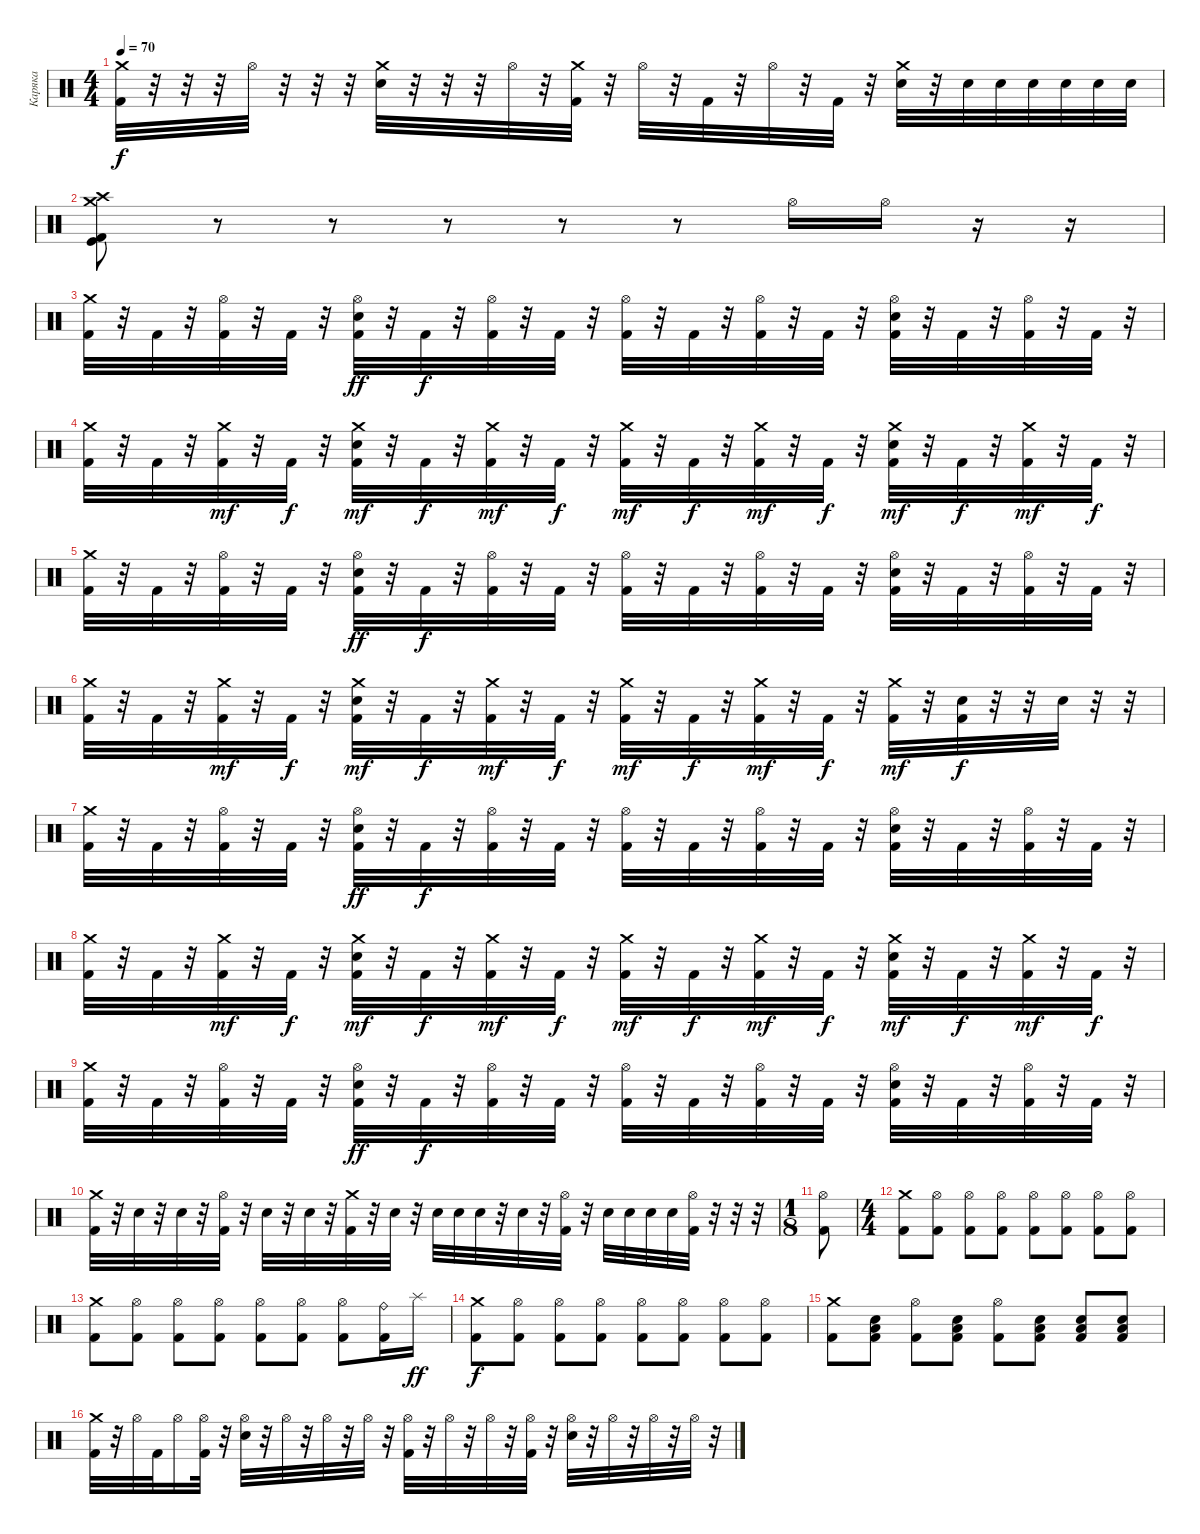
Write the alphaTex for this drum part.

\track ("Каряка" "Каряка") {instrument percussion}
\staff {score}
\articulation defaults
\ts (4 4)
\tempo 70
\clef neutral
\ks c
("Crash medium (hit)" "Kick (hit) 2").32{dy f} r.32 r.32 r.32 "Hi-Hat (open)".32 r.32 r.32 r.32 ("Crash medium (hit)" "Snare (hit) 2").32 r.32 r.32 r.32 "Hi-Hat (open)".32 r.32 ("Crash medium (hit)" "Kick (hit) 2").32 r.32 "Hi-Hat (open)".32 r.32 "Kick (hit) 2".32 r.32 "Hi-Hat (open)".32 r.32 "Kick (hit) 2".32 r.32 ("Crash medium (hit)" "Snare (hit) 2").32 r.32 "Snare (hit) 2".32 "Snare (hit) 2".32 "Snare (hit) 2".32 "Snare (hit) 2".32 "Snare (hit) 2".32 "Snare (hit) 2".32 |
("Crash medium (hit)" "Crash high (hit)" "Kick (hit)" "Kick (hit) 2").8 r.8 r.8 r.8 r.8 r.8 "Hi-Hat (open)".16 "Hi-Hat (open)".16 r.16 r.16 |
("Crash medium (hit)" "Kick (hit) 2").32 r.32 "Kick (hit) 2".32 r.32 ("Hi-Hat (open)" "Kick (hit) 2").32 r.32 "Kick (hit) 2".32 r.32 ("Hi-Hat (open)" "Snare (hit) 2" "Kick (hit) 2").32{dy ff} r.32 "Kick (hit) 2".32{dy f} r.32 ("Hi-Hat (open)" "Kick (hit) 2").32 r.32 "Kick (hit) 2".32 r.32 ("Hi-Hat (open)" "Kick (hit) 2").32 r.32 "Kick (hit) 2".32 r.32 ("Hi-Hat (open)" "Kick (hit) 2").32 r.32 "Kick (hit) 2".32 r.32 ("Hi-Hat (open)" "Snare (hit) 2" "Kick (hit) 2").32 r.32 "Kick (hit) 2".32 r.32 ("Hi-Hat (open)" "Kick (hit) 2").32 r.32 "Kick (hit) 2".32 r.32 |
("Crash medium (hit)" "Kick (hit) 2").32 r.32 "Kick (hit) 2".32 r.32 ("Crash medium (hit)" "Kick (hit) 2").32{dy mf} r.32 "Kick (hit) 2".32{dy f} r.32 ("Crash medium (hit)" "Snare (hit) 2" "Kick (hit) 2").32{dy mf} r.32 "Kick (hit) 2".32{dy f} r.32 ("Crash medium (hit)" "Kick (hit) 2").32{dy mf} r.32 "Kick (hit) 2".32{dy f} r.32 ("Crash medium (hit)" "Kick (hit) 2").32{dy mf} r.32 "Kick (hit) 2".32{dy f} r.32 ("Crash medium (hit)" "Kick (hit) 2").32{dy mf} r.32 "Kick (hit) 2".32{dy f} r.32 ("Crash medium (hit)" "Snare (hit) 2" "Kick (hit) 2").32{dy mf} r.32 "Kick (hit) 2".32{dy f} r.32 ("Crash medium (hit)" "Kick (hit) 2").32{dy mf} r.32 "Kick (hit) 2".32{dy f} r.32 |
("Crash medium (hit)" "Kick (hit) 2").32 r.32 "Kick (hit) 2".32 r.32 ("Hi-Hat (open)" "Kick (hit) 2").32 r.32 "Kick (hit) 2".32 r.32 ("Hi-Hat (open)" "Snare (hit) 2" "Kick (hit) 2").32{dy ff} r.32 "Kick (hit) 2".32{dy f} r.32 ("Hi-Hat (open)" "Kick (hit) 2").32 r.32 "Kick (hit) 2".32 r.32 ("Hi-Hat (open)" "Kick (hit) 2").32 r.32 "Kick (hit) 2".32 r.32 ("Hi-Hat (open)" "Kick (hit) 2").32 r.32 "Kick (hit) 2".32 r.32 ("Hi-Hat (open)" "Snare (hit) 2" "Kick (hit) 2").32 r.32 "Kick (hit) 2".32 r.32 ("Hi-Hat (open)" "Kick (hit) 2").32 r.32 "Kick (hit) 2".32 r.32 |
("Crash medium (hit)" "Kick (hit) 2").32 r.32 "Kick (hit) 2".32 r.32 ("Crash medium (hit)" "Kick (hit) 2").32{dy mf} r.32 "Kick (hit) 2".32{dy f} r.32 ("Crash medium (hit)" "Snare (hit) 2" "Kick (hit) 2").32{dy mf} r.32 "Kick (hit) 2".32{dy f} r.32 ("Crash medium (hit)" "Kick (hit) 2").32{dy mf} r.32 "Kick (hit) 2".32{dy f} r.32 ("Crash medium (hit)" "Kick (hit) 2").32{dy mf} r.32 "Kick (hit) 2".32{dy f} r.32 ("Crash medium (hit)" "Kick (hit) 2").32{dy mf} r.32 "Kick (hit) 2".32{dy f} r.32 ("Crash medium (hit)" "Kick (hit) 2").32{dy mf} r.32 ("Snare (hit) 2" "Kick (hit) 2").32{dy f} r.32 r.32 "Snare (hit) 2".32 r.32 r.32 |
("Crash medium (hit)" "Kick (hit) 2").32 r.32 "Kick (hit) 2".32 r.32 ("Hi-Hat (open)" "Kick (hit) 2").32 r.32 "Kick (hit) 2".32 r.32 ("Hi-Hat (open)" "Snare (hit) 2" "Kick (hit) 2").32{dy ff} r.32 "Kick (hit) 2".32{dy f} r.32 ("Hi-Hat (open)" "Kick (hit) 2").32 r.32 "Kick (hit) 2".32 r.32 ("Hi-Hat (open)" "Kick (hit) 2").32 r.32 "Kick (hit) 2".32 r.32 ("Hi-Hat (open)" "Kick (hit) 2").32 r.32 "Kick (hit) 2".32 r.32 ("Hi-Hat (open)" "Snare (hit) 2" "Kick (hit) 2").32 r.32 "Kick (hit) 2".32 r.32 ("Hi-Hat (open)" "Kick (hit) 2").32 r.32 "Kick (hit) 2".32 r.32 |
("Crash medium (hit)" "Kick (hit) 2").32 r.32 "Kick (hit) 2".32 r.32 ("Crash medium (hit)" "Kick (hit) 2").32{dy mf} r.32 "Kick (hit) 2".32{dy f} r.32 ("Crash medium (hit)" "Snare (hit) 2" "Kick (hit) 2").32{dy mf} r.32 "Kick (hit) 2".32{dy f} r.32 ("Crash medium (hit)" "Kick (hit) 2").32{dy mf} r.32 "Kick (hit) 2".32{dy f} r.32 ("Crash medium (hit)" "Kick (hit) 2").32{dy mf} r.32 "Kick (hit) 2".32{dy f} r.32 ("Crash medium (hit)" "Kick (hit) 2").32{dy mf} r.32 "Kick (hit) 2".32{dy f} r.32 ("Crash medium (hit)" "Snare (hit) 2" "Kick (hit) 2").32{dy mf} r.32 "Kick (hit) 2".32{dy f} r.32 ("Crash medium (hit)" "Kick (hit) 2").32{dy mf} r.32 "Kick (hit) 2".32{dy f} r.32 |
("Crash medium (hit)" "Kick (hit) 2").32 r.32 "Kick (hit) 2".32 r.32 ("Hi-Hat (open)" "Kick (hit) 2").32 r.32 "Kick (hit) 2".32 r.32 ("Hi-Hat (open)" "Snare (hit) 2" "Kick (hit) 2").32{dy ff} r.32 "Kick (hit) 2".32{dy f} r.32 ("Hi-Hat (open)" "Kick (hit) 2").32 r.32 "Kick (hit) 2".32 r.32 ("Hi-Hat (open)" "Kick (hit) 2").32 r.32 "Kick (hit) 2".32 r.32 ("Hi-Hat (open)" "Kick (hit) 2").32 r.32 "Kick (hit) 2".32 r.32 ("Hi-Hat (open)" "Snare (hit) 2" "Kick (hit) 2").32 r.32 "Kick (hit) 2".32 r.32 ("Hi-Hat (open)" "Kick (hit) 2").32 r.32 "Kick (hit) 2".32 r.32 |
("Crash medium (hit)" "Kick (hit) 2").32 r.32 "Snare (hit) 2".32 r.32 "Snare (hit) 2".32 r.32 ("Hi-Hat (open)" "Kick (hit) 2").32 r.32 "Snare (hit) 2".32 r.32 "Snare (hit) 2".32 r.32 ("Crash medium (hit)" "Kick (hit) 2").32 r.32 "Snare (hit) 2".32 r.32 "Snare (hit) 2".32 "Snare (hit) 2".32 "Snare (hit) 2".32 r.32 "Snare (hit) 2".32 r.32 ("Hi-Hat (open)" "Kick (hit) 2").32 r.32 "Snare (hit) 2".32 "Snare (hit) 2".32 "Snare (hit) 2".32 "Snare (hit) 2".32 ("Hi-Hat (open)" "Kick (hit) 2").32 r.32 r.32 r.32 |
\ts (1 8)
("Hi-Hat (open)" "Kick (hit) 2").8 |
\ts (4 4)
("Crash medium (hit)" "Kick (hit) 2").8 ("Hi-Hat (open)" "Kick (hit) 2").8 ("Hi-Hat (open)" "Kick (hit) 2").8 ("Hi-Hat (open)" "Kick (hit) 2").8 ("Hi-Hat (open)" "Kick (hit) 2").8 ("Hi-Hat (open)" "Kick (hit) 2").8 ("Hi-Hat (open)" "Kick (hit) 2").8 ("Hi-Hat (open)" "Kick (hit) 2").8 |
("Crash medium (hit)" "Kick (hit) 2").8 ("Hi-Hat (open)" "Kick (hit) 2").8 ("Hi-Hat (open)" "Kick (hit) 2").8 ("Hi-Hat (open)" "Kick (hit) 2").8 ("Hi-Hat (open)" "Kick (hit) 2").8 ("Hi-Hat (open)" "Kick (hit) 2").8 ("Hi-Hat (open)" "Kick (hit) 2").8 ("Ride (bell)" "Kick (hit) 2").16 "Splash (hit)".16{dy ff} |
("Crash medium (hit)" "Kick (hit) 2").8{dy f} ("Hi-Hat (open)" "Kick (hit) 2").8 ("Hi-Hat (open)" "Kick (hit) 2").8 ("Hi-Hat (open)" "Kick (hit) 2").8 ("Hi-Hat (open)" "Kick (hit) 2").8 ("Hi-Hat (open)" "Kick (hit) 2").8 ("Hi-Hat (open)" "Kick (hit) 2").8 ("Hi-Hat (open)" "Kick (hit) 2").8 |
("Crash medium (hit)" "Kick (hit) 2").8 ("Snare (hit) 2" "Low Tom (hit)" "Kick (hit) 2").8 ("Hi-Hat (open)" "Kick (hit) 2").8 ("Snare (hit) 2" "Low Tom (hit)" "Kick (hit) 2").8 ("Hi-Hat (open)" "Kick (hit) 2").8 ("Snare (hit) 2" "Low Tom (hit)" "Kick (hit) 2").8 ("Snare (hit) 2" "Low Tom (hit)" "Kick (hit) 2").8 ("Snare (hit) 2" "Low Tom (hit)" "Kick (hit) 2").8 |
("Crash medium (hit)" "Kick (hit) 2").32 r.32 "Hi-Hat (open)".32 "Kick (hit) 2".32 "Hi-Hat (open)".16 ("Hi-Hat (open)" "Kick (hit) 2").32 r.32 ("Hi-Hat (open)" "Snare (hit) 2").32 r.32 "Hi-Hat (open)".32 r.32 "Hi-Hat (open)".32 r.32 "Hi-Hat (open)".32 r.32 ("Hi-Hat (open)" "Kick (hit) 2").32 r.32 "Hi-Hat (open)".32 r.32 "Hi-Hat (open)".32 r.32 ("Hi-Hat (open)" "Kick (hit) 2").32 r.32 ("Hi-Hat (open)" "Snare (hit) 2").32 r.32 "Hi-Hat (open)".32 r.32 "Hi-Hat (open)".32 r.32 "Hi-Hat (open)".32 r.32
